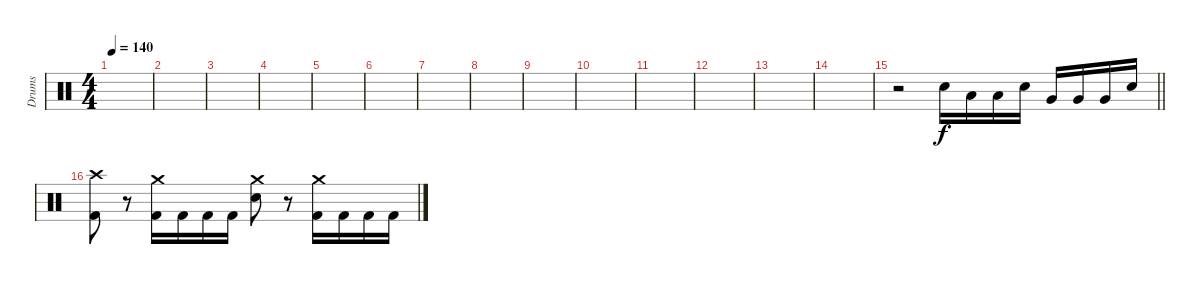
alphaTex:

\track ("Drums" "Drums") {instrument percussion}
\staff {score}
\articulation defaults
\ts (4 4)
\tempo 140
\clef neutral
\ks c
|
|
|
|
|
|
|
|
|
|
|
|
|
|
\barLineRight lightlight
r.2 "Snare (hit) 2".16 "Low Tom (hit)".16 "Low Tom (hit)".16 "Snare (hit) 2".16 "Very Low Tom (hit)".16 "Very Low Tom (hit)".16 "Very Low Tom (hit)".16 "Snare (hit) 2".16 |
\section ("" " ")
("Kick (hit) 2" "Crash high (hit)").8 r.8 ("Kick (hit) 2" "Crash medium (hit)").16 "Kick (hit) 2".16 "Kick (hit) 2".16 "Kick (hit) 2".16 ("Snare (hit) 2" "Crash medium (hit)").8 r.8 ("Kick (hit) 2" "Crash medium (hit)").16 "Kick (hit) 2".16 "Kick (hit) 2".16 "Kick (hit) 2".16
